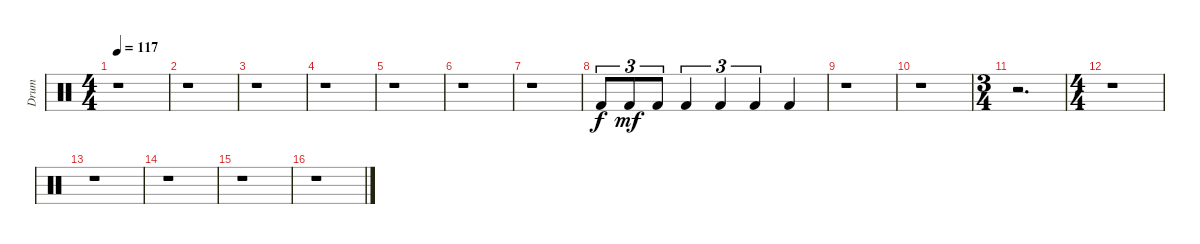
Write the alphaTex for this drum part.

\track ("Drum" "Drum") {instrument percussion}
\staff {score}
\articulation defaults
\ts (4 4)
\tempo 117
\clef neutral
\ks c
r.1{dy mf} |
r.1 |
r.1 |
r.1 |
r.1 |
r.1 |
r.1 |
"Kick (hit) 2".8{tu (3 2) dy f volume 9} "Kick (hit) 2".8{tu (3 2) dy mf} "Kick (hit) 2".8{tu (3 2)} "Kick (hit) 2".4{tu (3 2)} "Kick (hit) 2".4{tu (3 2)} "Kick (hit) 2".4{tu (3 2)} "Kick (hit) 2".4 |
r.1 |
r.1 |
\ts (3 4)
r.2{d} |
\ts (4 4)
r.1 |
r.1 |
r.1 |
r.1 |
r.1
